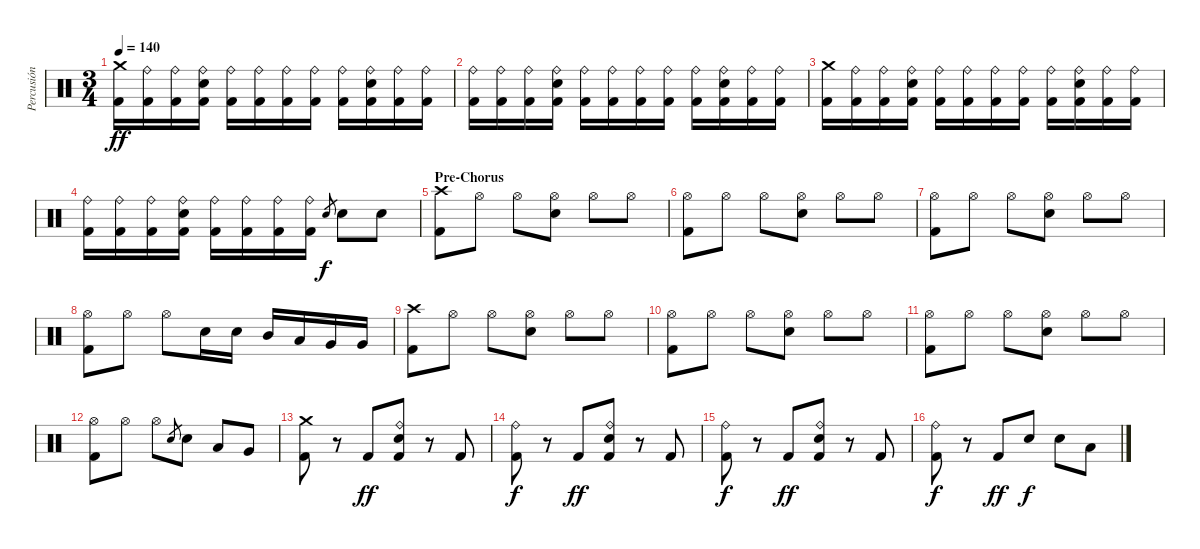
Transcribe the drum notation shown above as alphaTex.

\track ("Percusión" "Percusión") {instrument percussion}
\staff {score}
\articulation defaults
\ts (3 4)
\tempo 140
\clef neutral
\ks c
("Crash medium (hit)" "Kick (hit) 2").16{dy ff} ("Ride (bell)" "Kick (hit) 2").16 ("Ride (bell)" "Kick (hit) 2").16 ("Ride (bell)" "Electric Snare (hit)" "Kick (hit) 2").16 ("Ride (bell)" "Kick (hit) 2").16 ("Ride (bell)" "Kick (hit) 2").16 ("Ride (bell)" "Kick (hit) 2").16 ("Ride (bell)" "Kick (hit) 2").16 ("Ride (bell)" "Kick (hit) 2").16 ("Ride (bell)" "Electric Snare (hit)" "Kick (hit) 2").16 ("Ride (bell)" "Kick (hit) 2").16 ("Ride (bell)" "Kick (hit) 2").16 |
("Ride (bell)" "Kick (hit) 2").16 ("Ride (bell)" "Kick (hit) 2").16 ("Ride (bell)" "Kick (hit) 2").16 ("Ride (bell)" "Electric Snare (hit)" "Kick (hit) 2").16 ("Ride (bell)" "Kick (hit) 2").16 ("Ride (bell)" "Kick (hit) 2").16 ("Ride (bell)" "Kick (hit) 2").16 ("Ride (bell)" "Kick (hit) 2").16 ("Ride (bell)" "Kick (hit) 2").16 ("Ride (bell)" "Electric Snare (hit)" "Kick (hit) 2").16 ("Ride (bell)" "Kick (hit) 2").16 ("Ride (bell)" "Kick (hit) 2").16 |
("Crash medium (hit)" "Kick (hit) 2").16 ("Ride (bell)" "Kick (hit) 2").16 ("Ride (bell)" "Kick (hit) 2").16 ("Ride (bell)" "Electric Snare (hit)" "Kick (hit) 2").16 ("Ride (bell)" "Kick (hit) 2").16 ("Ride (bell)" "Kick (hit) 2").16 ("Ride (bell)" "Kick (hit) 2").16 ("Ride (bell)" "Kick (hit) 2").16 ("Ride (bell)" "Kick (hit) 2").16 ("Ride (bell)" "Electric Snare (hit)" "Kick (hit) 2").16 ("Ride (bell)" "Kick (hit) 2").16 ("Ride (bell)" "Kick (hit) 2").16 |
("Ride (bell)" "Kick (hit) 2").16 ("Ride (bell)" "Kick (hit) 2").16 ("Ride (bell)" "Kick (hit) 2").16 ("Ride (bell)" "Electric Snare (hit)" "Kick (hit) 2").16 ("Ride (bell)" "Kick (hit) 2").16 ("Ride (bell)" "Kick (hit) 2").16 ("Ride (bell)" "Kick (hit) 2").16 ("Ride (bell)" "Kick (hit) 2").16 "Electric Snare (hit)".8{gr dy f} "Electric Snare (hit)".8 "Electric Snare (hit)".8 |
\section ("" "Pre-Chorus")
("Crash high (hit)" "Kick (hit) 2").8 "Hi-Hat (open)".8 "Hi-Hat (open)".8 ("Hi-Hat (open)" "Electric Snare (hit)").8 "Hi-Hat (open)".8 "Hi-Hat (open)".8 |
("Hi-Hat (open)" "Kick (hit) 2").8 "Hi-Hat (open)".8 "Hi-Hat (open)".8 ("Hi-Hat (open)" "Electric Snare (hit)").8 "Hi-Hat (open)".8 "Hi-Hat (open)".8 |
("Hi-Hat (open)" "Kick (hit) 2").8 "Hi-Hat (open)".8 "Hi-Hat (open)".8 ("Hi-Hat (open)" "Electric Snare (hit)").8 "Hi-Hat (open)".8 "Hi-Hat (open)".8 |
("Hi-Hat (open)" "Kick (hit) 2").8 "Hi-Hat (open)".8 "Hi-Hat (open)".8 "Electric Snare (hit)".16 "Electric Snare (hit)".16 "Mid Tom (hit)".16 "Low Tom (hit)".16 "Very Low Tom (hit)".16 "Very Low Tom (hit)".16 |
("Crash high (hit)" "Kick (hit) 2").8 "Hi-Hat (open)".8 "Hi-Hat (open)".8 ("Hi-Hat (open)" "Electric Snare (hit)").8 "Hi-Hat (open)".8 "Hi-Hat (open)".8 |
("Hi-Hat (open)" "Kick (hit) 2").8 "Hi-Hat (open)".8 "Hi-Hat (open)".8 ("Hi-Hat (open)" "Electric Snare (hit)").8 "Hi-Hat (open)".8 "Hi-Hat (open)".8 |
("Hi-Hat (open)" "Kick (hit) 2").8 "Hi-Hat (open)".8 "Hi-Hat (open)".8 ("Hi-Hat (open)" "Electric Snare (hit)").8 "Hi-Hat (open)".8 "Hi-Hat (open)".8 |
("Hi-Hat (open)" "Kick (hit) 2").8 "Hi-Hat (open)".8 "Hi-Hat (open)".8 "Electric Snare (hit)".8{gr} "Electric Snare (hit)".8 "Low Tom (hit)".8 "Very Low Tom (hit)".8 |
("Crash medium (hit)" "Kick (hit) 2").8 r.8 "Kick (hit) 2".8{dy ff} ("Ride (bell)" "Electric Snare (hit)" "Kick (hit) 2").8 r.8 "Kick (hit) 2".8 |
("Ride (bell)" "Kick (hit) 2").8{dy f} r.8 "Kick (hit) 2".8{dy ff} ("Ride (bell)" "Electric Snare (hit)" "Kick (hit) 2").8 r.8 "Kick (hit) 2".8 |
("Ride (bell)" "Kick (hit) 2").8{dy f} r.8 "Kick (hit) 2".8{dy ff} ("Ride (bell)" "Electric Snare (hit)" "Kick (hit) 2").8 r.8 "Kick (hit) 2".8 |
("Ride (bell)" "Kick (hit) 2").8{dy f} r.8 "Kick (hit) 2".8{dy ff} "Electric Snare (hit)".8{dy f} "Electric Snare (hit)".8 "Low Tom (hit)".8
